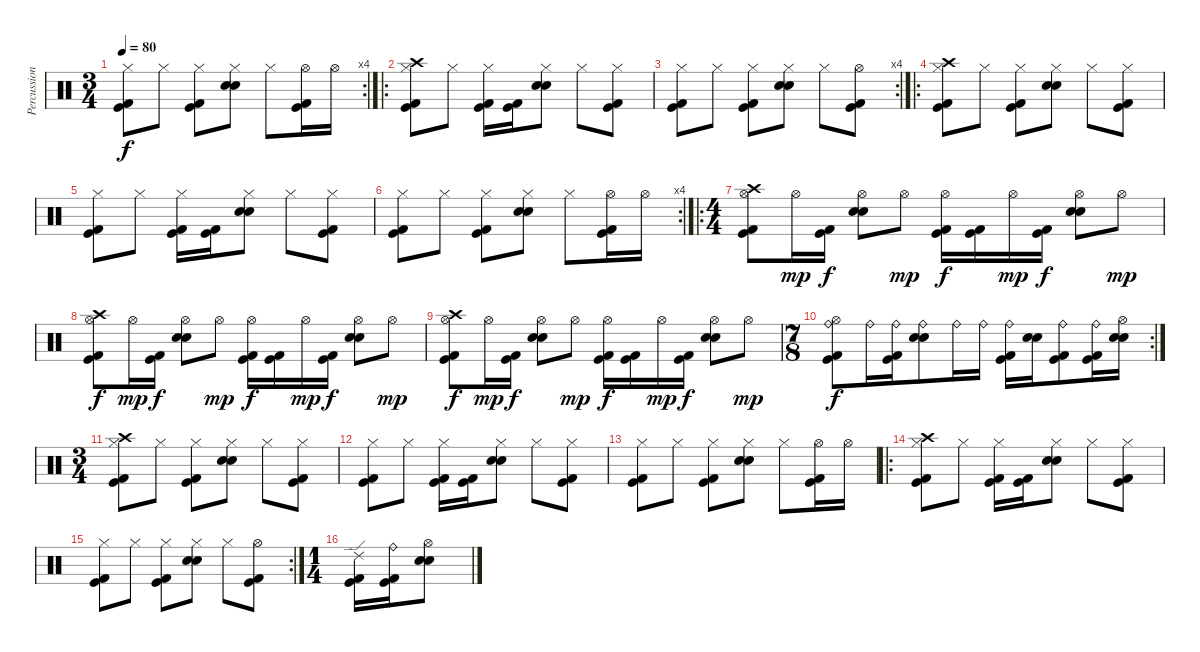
\track ("Percussion" "Percussion") {instrument percussion}
\staff {score}
\articulation defaults
\rc 4
\ts (3 4)
\tempo 80
\clef neutral
\ks c
("Hi-Hat (closed)" "Kick (hit) 2" "Kick (hit)").8{dy f} "Hi-Hat (closed)".8 ("Hi-Hat (closed)" "Kick (hit) 2" "Kick (hit)").8 ("Hi-Hat (closed)" "Electric Snare (hit)" "Snare (hit) 2").8 "Hi-Hat (closed)".8 ("Hi-Hat (open)" "Kick (hit) 2" "Kick (hit)").16 "Hi-Hat (open)".16 |
\ro
("Hi-Hat (closed)" "Crash high (hit)" "Kick (hit) 2" "Kick (hit)").8 "Hi-Hat (closed)".8 ("Hi-Hat (closed)" "Kick (hit) 2" "Kick (hit)").16 ("Kick (hit) 2" "Kick (hit)").16 ("Hi-Hat (closed)" "Electric Snare (hit)" "Snare (hit) 2").8 "Hi-Hat (closed)".8 ("Hi-Hat (closed)" "Kick (hit) 2" "Kick (hit)").8 |
\rc 4
("Hi-Hat (closed)" "Kick (hit) 2" "Kick (hit)").8 "Hi-Hat (closed)".8 ("Hi-Hat (closed)" "Kick (hit) 2" "Kick (hit)").8 ("Hi-Hat (closed)" "Electric Snare (hit)" "Snare (hit) 2").8 "Hi-Hat (closed)".8 ("Hi-Hat (open)" "Kick (hit) 2" "Kick (hit)").8 |
\ro
("Hi-Hat (closed)" "Crash high (hit)" "Kick (hit) 2" "Kick (hit)").8 "Hi-Hat (closed)".8 ("Hi-Hat (closed)" "Kick (hit) 2" "Kick (hit)").8 ("Hi-Hat (closed)" "Electric Snare (hit)" "Snare (hit) 2").8 "Hi-Hat (closed)".8 ("Hi-Hat (closed)" "Kick (hit) 2" "Kick (hit)").8 |
("Hi-Hat (closed)" "Kick (hit) 2" "Kick (hit)").8 "Hi-Hat (closed)".8 ("Hi-Hat (closed)" "Kick (hit) 2" "Kick (hit)").16 ("Kick (hit) 2" "Kick (hit)").16 ("Hi-Hat (closed)" "Electric Snare (hit)" "Snare (hit) 2").8 "Hi-Hat (closed)".8 ("Hi-Hat (closed)" "Kick (hit) 2" "Kick (hit)").8 |
\rc 4
("Hi-Hat (closed)" "Kick (hit) 2" "Kick (hit)").8 "Hi-Hat (closed)".8 ("Hi-Hat (closed)" "Kick (hit) 2" "Kick (hit)").8 ("Hi-Hat (closed)" "Electric Snare (hit)" "Snare (hit) 2").8 "Hi-Hat (closed)".8 ("Hi-Hat (open)" "Kick (hit) 2" "Kick (hit)").16 "Hi-Hat (open)".16 |
\ro
\ts (4 4)
("Hi-Hat (open)" "Crash high (hit)" "Kick (hit) 2" "Kick (hit)").8 "Hi-Hat (open)".16{dy mp} ("Kick (hit) 2" "Kick (hit)").16{dy f} ("Hi-Hat (open)" "Electric Snare (hit)" "Snare (hit) 2").8 "Hi-Hat (open)".8{dy mp} ("Hi-Hat (open)" "Kick (hit) 2" "Kick (hit)").16{dy f} ("Kick (hit) 2" "Kick (hit)").16 "Hi-Hat (open)".16{dy mp} ("Kick (hit) 2" "Kick (hit)").16{dy f} ("Hi-Hat (open)" "Electric Snare (hit)" "Snare (hit) 2").8 "Hi-Hat (open)".8{dy mp} |
("Hi-Hat (open)" "Crash high (hit)" "Kick (hit) 2" "Kick (hit)").8{dy f} "Hi-Hat (open)".16{dy mp} ("Kick (hit) 2" "Kick (hit)").16{dy f} ("Hi-Hat (open)" "Electric Snare (hit)" "Snare (hit) 2").8 "Hi-Hat (open)".8{dy mp} ("Hi-Hat (open)" "Kick (hit) 2" "Kick (hit)").16{dy f} ("Kick (hit) 2" "Kick (hit)").16 "Hi-Hat (open)".16{dy mp} ("Kick (hit) 2" "Kick (hit)").16{dy f} ("Hi-Hat (open)" "Electric Snare (hit)" "Snare (hit) 2").8 "Hi-Hat (open)".8{dy mp} |
("Hi-Hat (open)" "Crash high (hit)" "Kick (hit) 2" "Kick (hit)").8{dy f} "Hi-Hat (open)".16{dy mp} ("Kick (hit) 2" "Kick (hit)").16{dy f} ("Hi-Hat (open)" "Electric Snare (hit)" "Snare (hit) 2").8 "Hi-Hat (open)".8{dy mp} ("Hi-Hat (open)" "Kick (hit) 2" "Kick (hit)").16{dy f} ("Kick (hit) 2" "Kick (hit)").16 "Hi-Hat (open)".16{dy mp} ("Kick (hit) 2" "Kick (hit)").16{dy f} ("Hi-Hat (open)" "Electric Snare (hit)" "Snare (hit) 2").8 "Hi-Hat (open)".8{dy mp} |
\rc 2
\ts (7 8)
("Ride (bell)" "Hi-Hat (open)" "Kick (hit) 2" "Kick (hit)").8{dy f} "Ride (bell)".16 ("Ride (bell)" "Kick (hit) 2" "Kick (hit)").16 ("Ride (bell)" "Electric Snare (hit)" "Snare (hit) 2").8 "Ride (bell)".16 "Ride (bell)".16 ("Ride (bell)" "Kick (hit) 2" "Kick (hit)").16 ("Electric Snare (hit)" "Snare (hit) 2").16 ("Ride (bell)" "Kick (hit) 2" "Kick (hit)").8 ("Ride (bell)" "Kick (hit) 2" "Kick (hit)").16 ("Hi-Hat (open)" "Electric Snare (hit)" "Snare (hit) 2").16 |
\ts (3 4)
("Hi-Hat (closed)" "Crash high (hit)" "Kick (hit) 2" "Kick (hit)").8 "Hi-Hat (closed)".8 ("Hi-Hat (closed)" "Kick (hit) 2" "Kick (hit)").8 ("Hi-Hat (closed)" "Electric Snare (hit)" "Snare (hit) 2").8 "Hi-Hat (closed)".8 ("Hi-Hat (closed)" "Kick (hit) 2" "Kick (hit)").8 |
("Hi-Hat (closed)" "Kick (hit) 2" "Kick (hit)").8 "Hi-Hat (closed)".8 ("Hi-Hat (closed)" "Kick (hit) 2" "Kick (hit)").16 ("Kick (hit) 2" "Kick (hit)").16 ("Hi-Hat (closed)" "Electric Snare (hit)" "Snare (hit) 2").8 "Hi-Hat (closed)".8 ("Hi-Hat (closed)" "Kick (hit) 2" "Kick (hit)").8 |
("Hi-Hat (closed)" "Kick (hit) 2" "Kick (hit)").8 "Hi-Hat (closed)".8 ("Hi-Hat (closed)" "Kick (hit) 2" "Kick (hit)").8 ("Hi-Hat (closed)" "Electric Snare (hit)" "Snare (hit) 2").8 "Hi-Hat (closed)".8 ("Hi-Hat (open)" "Kick (hit) 2" "Kick (hit)").16 "Hi-Hat (open)".16 |
\ro
("Hi-Hat (closed)" "Crash high (hit)" "Kick (hit) 2" "Kick (hit)").8 "Hi-Hat (closed)".8 ("Hi-Hat (closed)" "Kick (hit) 2" "Kick (hit)").16 ("Kick (hit) 2" "Kick (hit)").16 ("Hi-Hat (closed)" "Electric Snare (hit)" "Snare (hit) 2").8 "Hi-Hat (closed)".8 ("Hi-Hat (closed)" "Kick (hit) 2" "Kick (hit)").8 |
\rc 2
("Hi-Hat (closed)" "Kick (hit) 2" "Kick (hit)").8 "Hi-Hat (closed)".8 ("Hi-Hat (closed)" "Kick (hit) 2" "Kick (hit)").8 ("Hi-Hat (closed)" "Electric Snare (hit)" "Snare (hit) 2").8 "Hi-Hat (closed)".8 ("Hi-Hat (open)" "Kick (hit) 2" "Kick (hit)").8 |
\ts (1 4)
("Ride (edge) 2" "Kick (hit) 2" "Kick (hit)").16 ("Ride (bell)" "Kick (hit) 2" "Kick (hit)").16 ("Hi-Hat (open)" "Electric Snare (hit)" "Snare (hit) 2").8
